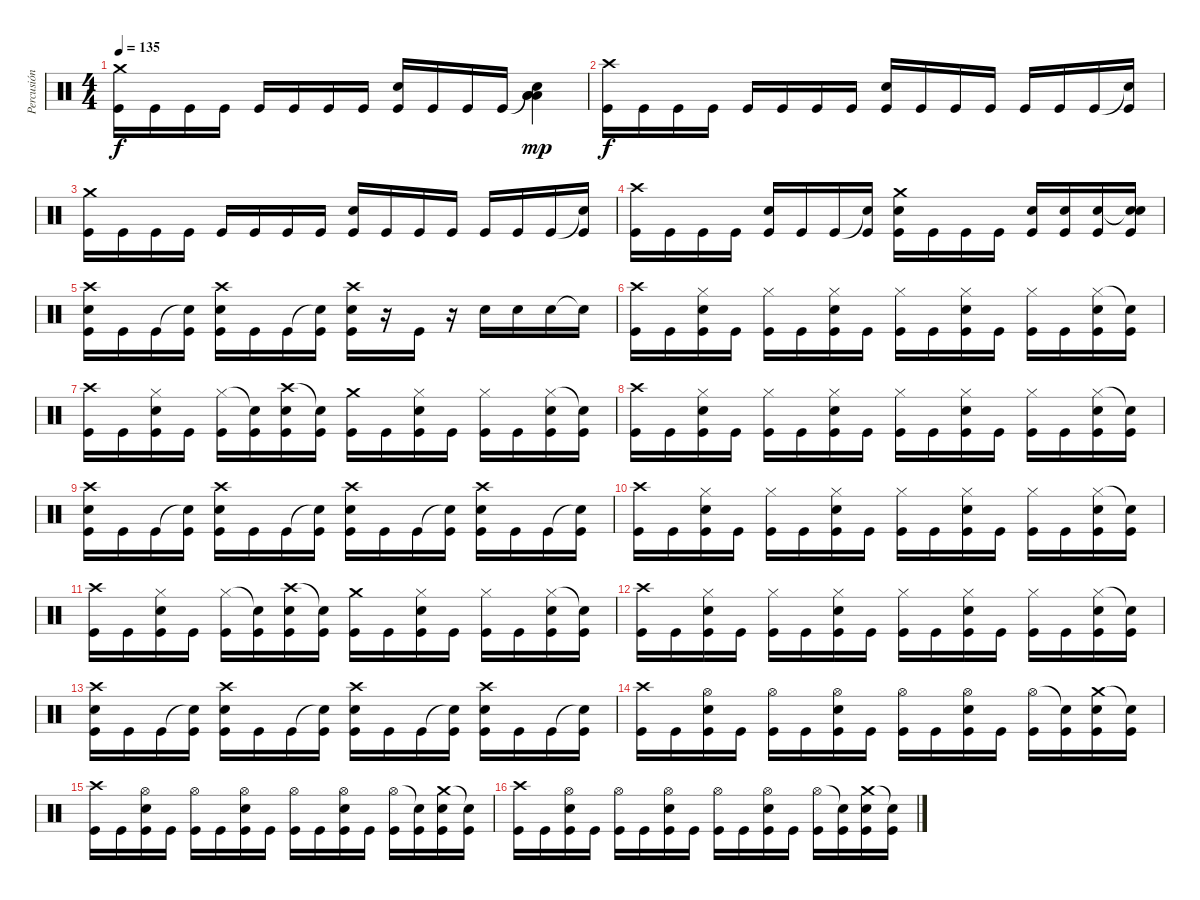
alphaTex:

\track ("Percusión" "Percusión") {instrument percussion}
\staff {score}
\articulation defaults
\ts (4 4)
\tempo 135
\clef neutral
\ks c
("Crash medium (hit)" "Kick (hit)").16{dy f} "Kick (hit)".16 "Kick (hit)".16 "Kick (hit)".16 "Kick (hit)".16 "Kick (hit)".16 "Kick (hit)".16 "Kick (hit)".16 ("Snare (hit) 2" "Kick (hit)").16 "Kick (hit)".16 "Kick (hit)".16 "Kick (hit)".16 ("Snare (hit)"{t} "Low Tom (hit)" "Low Tom (hit)" "Low Tom (hit)").4{dy mp} |
("Crash high (hit)" "Kick (hit)").16{dy f} "Kick (hit)".16 "Kick (hit)".16 "Kick (hit)".16 "Kick (hit)".16 "Kick (hit)".16 "Kick (hit)".16 "Kick (hit)".16 ("Snare (hit) 2" "Kick (hit)").16 "Kick (hit)".16 "Kick (hit)".16 "Kick (hit)".16 "Kick (hit)".16 "Kick (hit)".16 "Kick (hit)".16 ("Snare (hit)"{t} "Kick (hit)").16 |
("Crash medium (hit)" "Kick (hit)").16 "Kick (hit)".16 "Kick (hit)".16 "Kick (hit)".16 "Kick (hit)".16 "Kick (hit)".16 "Kick (hit)".16 "Kick (hit)".16 ("Snare (hit) 2" "Kick (hit)").16 "Kick (hit)".16 "Kick (hit)".16 "Kick (hit)".16 "Kick (hit)".16 "Kick (hit)".16 "Kick (hit)".16 ("Snare (hit)"{t} "Kick (hit)").16 |
("Crash high (hit)" "Kick (hit)").16 "Kick (hit)".16 "Kick (hit)".16 "Kick (hit)".16 ("Snare (hit) 2" "Kick (hit)").16 "Kick (hit)".16 "Kick (hit)".16 ("Snare (hit)"{t} "Kick (hit)").16 ("Crash medium (hit)" "Snare (hit) 2" "Kick (hit)").16 "Kick (hit)".16 "Kick (hit)".16 "Kick (hit)".16 ("Snare (hit) 2" "Kick (hit)").16 ("Snare (hit) 2" "Kick (hit)").16 ("Snare (hit) 2" "Kick (hit)").16 ("Snare (hit)"{t} "Snare (hit) 2" "Kick (hit)").16 |
("Crash high (hit)" "Snare (hit) 2" "Kick (hit)").16 "Kick (hit)".16 "Kick (hit)".16 ("Snare (hit)"{t} "Kick (hit)").16 ("Crash high (hit)" "Snare (hit) 2" "Kick (hit)").16 "Kick (hit)".16 "Kick (hit)".16 ("Snare (hit)"{t} "Kick (hit)").16 ("Crash high (hit)" "Snare (hit) 2" "Kick (hit)").16 r.16 "Kick (hit)".16 r.16 "Snare (hit) 2".16 "Snare (hit) 2".16 "Snare (hit) 2".16 "Snare (hit)"{t}.16 |
("Crash high (hit)" "Kick (hit)").16 "Kick (hit)".16 ("Hi-Hat (closed)" "Snare (hit) 2" "Kick (hit)").16 "Kick (hit)".16 ("Hi-Hat (closed)" "Kick (hit)").16 "Kick (hit)".16 ("Hi-Hat (closed)" "Snare (hit) 2" "Kick (hit)").16 "Kick (hit)".16 ("Hi-Hat (closed)" "Kick (hit)").16 "Kick (hit)".16 ("Hi-Hat (closed)" "Snare (hit) 2" "Kick (hit)").16 "Kick (hit)".16 ("Hi-Hat (closed)" "Kick (hit)").16 "Kick (hit)".16 ("Hi-Hat (closed)" "Snare (hit) 2" "Kick (hit)").16 ("Snare (hit)"{t} "Kick (hit)").16 |
("Crash high (hit)" "Kick (hit)").16 "Kick (hit)".16 ("Hi-Hat (closed)" "Snare (hit) 2" "Kick (hit)").16 "Kick (hit)".16 ("Hi-Hat (closed)" "Kick (hit)").16 ("Snare (hit)"{t} "Kick (hit)").16 ("Crash high (hit)" "Snare (hit) 2" "Kick (hit)").16 ("Snare (hit)"{t} "Kick (hit)").16 ("Crash medium (hit)" "Kick (hit)").16 "Kick (hit)".16 ("Hi-Hat (closed)" "Snare (hit) 2" "Kick (hit)").16 "Kick (hit)".16 ("Hi-Hat (closed)" "Kick (hit)").16 "Kick (hit)".16 ("Hi-Hat (closed)" "Snare (hit) 2" "Kick (hit)").16 ("Snare (hit)"{t} "Kick (hit)").16 |
("Crash high (hit)" "Kick (hit)").16 "Kick (hit)".16 ("Hi-Hat (closed)" "Snare (hit) 2" "Kick (hit)").16 "Kick (hit)".16 ("Hi-Hat (closed)" "Kick (hit)").16 "Kick (hit)".16 ("Hi-Hat (closed)" "Snare (hit) 2" "Kick (hit)").16 "Kick (hit)".16 ("Hi-Hat (closed)" "Kick (hit)").16 "Kick (hit)".16 ("Hi-Hat (closed)" "Snare (hit) 2" "Kick (hit)").16 "Kick (hit)".16 ("Hi-Hat (closed)" "Kick (hit)").16 "Kick (hit)".16 ("Hi-Hat (closed)" "Snare (hit) 2" "Kick (hit)").16 ("Snare (hit)"{t} "Kick (hit)").16 |
("Crash high (hit)" "Snare (hit) 2" "Kick (hit)").16 "Kick (hit)".16 "Kick (hit)".16 ("Snare (hit)"{t} "Kick (hit)").16 ("Crash high (hit)" "Snare (hit) 2" "Kick (hit)").16 "Kick (hit)".16 "Kick (hit)".16 ("Snare (hit)"{t} "Kick (hit)").16 ("Crash high (hit)" "Snare (hit) 2" "Kick (hit)").16 "Kick (hit)".16 "Kick (hit)".16 ("Snare (hit)"{t} "Kick (hit)").16 ("Crash high (hit)" "Snare (hit) 2" "Kick (hit)").16 "Kick (hit)".16 "Kick (hit)".16 ("Snare (hit)"{t} "Kick (hit)").16 |
("Crash high (hit)" "Kick (hit)").16 "Kick (hit)".16 ("Hi-Hat (closed)" "Snare (hit) 2" "Kick (hit)").16 "Kick (hit)".16 ("Hi-Hat (closed)" "Kick (hit)").16 "Kick (hit)".16 ("Hi-Hat (closed)" "Snare (hit) 2" "Kick (hit)").16 "Kick (hit)".16 ("Hi-Hat (closed)" "Kick (hit)").16 "Kick (hit)".16 ("Hi-Hat (closed)" "Snare (hit) 2" "Kick (hit)").16 "Kick (hit)".16 ("Hi-Hat (closed)" "Kick (hit)").16 "Kick (hit)".16 ("Hi-Hat (closed)" "Snare (hit) 2" "Kick (hit)").16 ("Snare (hit)"{t} "Kick (hit)").16 |
("Crash high (hit)" "Kick (hit)").16 "Kick (hit)".16 ("Hi-Hat (closed)" "Snare (hit) 2" "Kick (hit)").16 "Kick (hit)".16 ("Hi-Hat (closed)" "Kick (hit)").16 ("Snare (hit)"{t} "Kick (hit)").16 ("Crash high (hit)" "Snare (hit) 2" "Kick (hit)").16 ("Snare (hit)"{t} "Kick (hit)").16 ("Crash medium (hit)" "Kick (hit)").16 "Kick (hit)".16 ("Hi-Hat (closed)" "Snare (hit) 2" "Kick (hit)").16 "Kick (hit)".16 ("Hi-Hat (closed)" "Kick (hit)").16 "Kick (hit)".16 ("Hi-Hat (closed)" "Snare (hit) 2" "Kick (hit)").16 ("Snare (hit)"{t} "Kick (hit)").16 |
("Crash high (hit)" "Kick (hit)").16 "Kick (hit)".16 ("Hi-Hat (closed)" "Snare (hit) 2" "Kick (hit)").16 "Kick (hit)".16 ("Hi-Hat (closed)" "Kick (hit)").16 "Kick (hit)".16 ("Hi-Hat (closed)" "Snare (hit) 2" "Kick (hit)").16 "Kick (hit)".16 ("Hi-Hat (closed)" "Kick (hit)").16 "Kick (hit)".16 ("Hi-Hat (closed)" "Snare (hit) 2" "Kick (hit)").16 "Kick (hit)".16 ("Hi-Hat (closed)" "Kick (hit)").16 "Kick (hit)".16 ("Hi-Hat (closed)" "Snare (hit) 2" "Kick (hit)").16 ("Snare (hit)"{t} "Kick (hit)").16 |
("Crash high (hit)" "Snare (hit) 2" "Kick (hit)").16 "Kick (hit)".16 "Kick (hit)".16 ("Snare (hit)"{t} "Kick (hit)").16 ("Crash high (hit)" "Snare (hit) 2" "Kick (hit)").16 "Kick (hit)".16 "Kick (hit)".16 ("Snare (hit)"{t} "Kick (hit)").16 ("Crash high (hit)" "Snare (hit) 2" "Kick (hit)").16 "Kick (hit)".16 "Kick (hit)".16 ("Snare (hit)"{t} "Kick (hit)").16 ("Crash high (hit)" "Snare (hit) 2" "Kick (hit)").16 "Kick (hit)".16 "Kick (hit)".16 ("Snare (hit)"{t} "Kick (hit)").16 |
("Crash high (hit)" "Kick (hit)").16 "Kick (hit)".16 ("Hi-Hat (open)" "Snare (hit) 2" "Kick (hit)").16 "Kick (hit)".16 ("Hi-Hat (open)" "Kick (hit)").16 "Kick (hit)".16 ("Hi-Hat (open)" "Snare (hit) 2" "Kick (hit)").16 "Kick (hit)".16 ("Hi-Hat (open)" "Kick (hit)").16 "Kick (hit)".16 ("Hi-Hat (open)" "Snare (hit) 2" "Kick (hit)").16 "Kick (hit)".16 ("Hi-Hat (open)" "Kick (hit)").16 ("Snare (hit)"{t} "Kick (hit)").16 ("Crash medium (hit)" "Snare (hit) 2" "Kick (hit)").16 ("Snare (hit)"{t} "Kick (hit)").16 |
("Crash high (hit)" "Kick (hit)").16 "Kick (hit)".16 ("Hi-Hat (open)" "Snare (hit) 2" "Kick (hit)").16 "Kick (hit)".16 ("Hi-Hat (open)" "Kick (hit)").16 "Kick (hit)".16 ("Hi-Hat (open)" "Snare (hit) 2" "Kick (hit)").16 "Kick (hit)".16 ("Hi-Hat (open)" "Kick (hit)").16 "Kick (hit)".16 ("Hi-Hat (open)" "Snare (hit) 2" "Kick (hit)").16 "Kick (hit)".16 ("Hi-Hat (open)" "Kick (hit)").16 ("Snare (hit)"{t} "Kick (hit)").16 ("Crash medium (hit)" "Snare (hit) 2" "Kick (hit)").16 ("Snare (hit)"{t} "Kick (hit)").16 |
("Crash high (hit)" "Kick (hit)").16 "Kick (hit)".16 ("Hi-Hat (open)" "Snare (hit) 2" "Kick (hit)").16 "Kick (hit)".16 ("Hi-Hat (open)" "Kick (hit)").16 "Kick (hit)".16 ("Hi-Hat (open)" "Snare (hit) 2" "Kick (hit)").16 "Kick (hit)".16 ("Hi-Hat (open)" "Kick (hit)").16 "Kick (hit)".16 ("Hi-Hat (open)" "Snare (hit) 2" "Kick (hit)").16 "Kick (hit)".16 ("Hi-Hat (open)" "Kick (hit)").16 ("Snare (hit)"{t} "Kick (hit)").16 ("Crash medium (hit)" "Snare (hit) 2" "Kick (hit)").16 ("Snare (hit)"{t} "Kick (hit)").16
